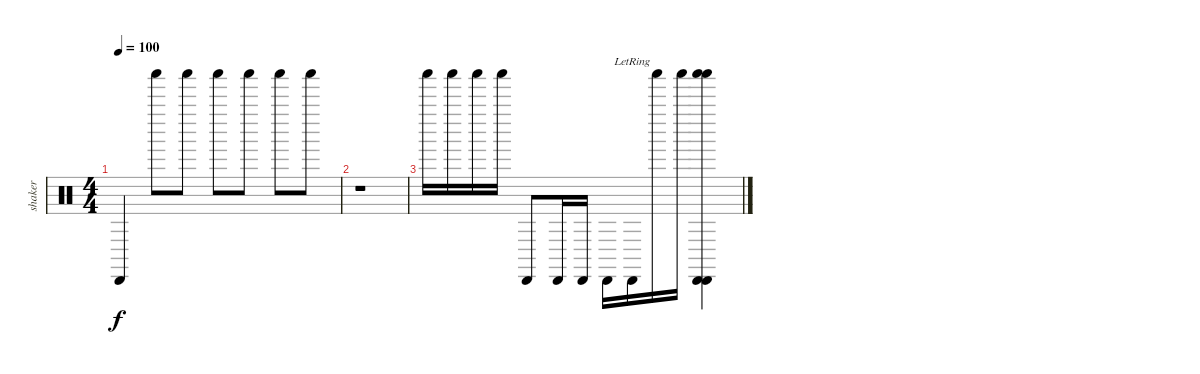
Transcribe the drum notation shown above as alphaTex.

\track ("shaker" "shaker") {instrument percussion}
\staff {score}
\articulation defaults
\ts (4 4)
\tempo 100
\clef neutral
\ks c "Cabasa (hit)".4{dy f} "Shaker (hit)".8 "Shaker (hit)".8 "Shaker (hit)".8 "Shaker (hit)".8 "Shaker (hit)".8 "Shaker (hit)".8
|
r.1 |
"Shaker (hit)".16 "Shaker (hit)".16 "Shaker (hit)".16 "Shaker (hit)".16 "Cabasa (hit)".8 "Cabasa (hit)".16 "Cabasa (hit)".16 "Cabasa (hit)".16 "Cabasa (hit)"{lr}.16 "Shaker (hit)".16 "Shaker (hit)".16 ("Shaker (hit)" "Shaker (hit)" "Cabasa (hit)" "Cabasa (hit)").4
